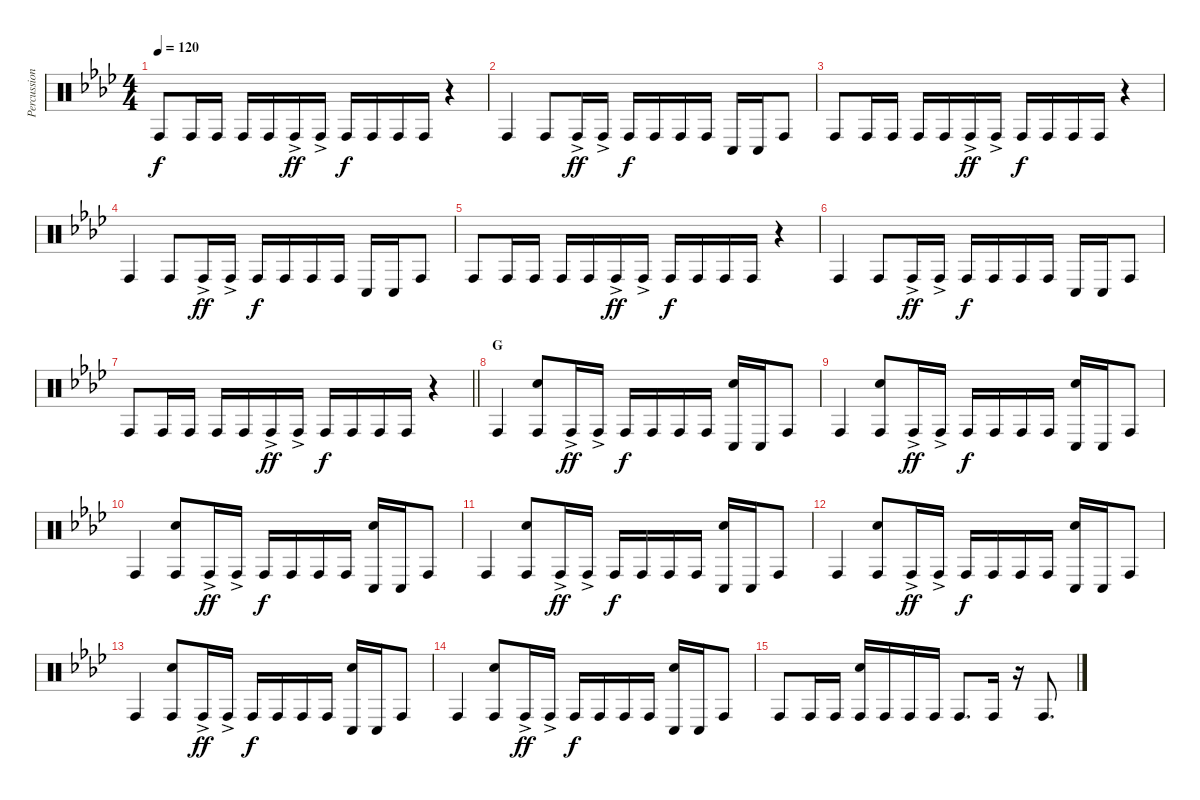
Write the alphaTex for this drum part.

\track ("Percussion" "Percussion") {instrument percussion}
\staff {score}
\articulation defaults
\ts (4 4)
\tempo 120
\clef neutral
\ks ab "Conga high (hit)".8{dy f} "Conga high (hit)".16 "Conga high (hit)".16 "Conga high (hit)".16 "Conga high (hit)".16 "Conga high (hit)"{ac}.16{dy ff} "Conga high (hit)"{ac}.16 "Conga high (hit)".16{dy f} "Conga high (hit)".16 "Conga high (hit)".16 "Conga high (hit)".16
r.4 |
"Conga high (hit)".4 "Conga high (hit)".8 "Conga high (hit)"{ac}.16{dy ff} "Conga high (hit)"{ac}.16 "Conga high (hit)".16{dy f} "Conga high (hit)".16 "Conga high (hit)".16 "Conga high (hit)".16 "Conga low (hit)".16 "Conga low (hit)".16 "Conga high (hit)".8 |
"Conga high (hit)".8 "Conga high (hit)".16 "Conga high (hit)".16 "Conga high (hit)".16 "Conga high (hit)".16 "Conga high (hit)"{ac}.16{dy ff} "Conga high (hit)"{ac}.16 "Conga high (hit)".16{dy f} "Conga high (hit)".16 "Conga high (hit)".16 "Conga high (hit)".16 r.4 |
"Conga high (hit)".4 "Conga high (hit)".8 "Conga high (hit)"{ac}.16{dy ff} "Conga high (hit)"{ac}.16 "Conga high (hit)".16{dy f} "Conga high (hit)".16 "Conga high (hit)".16 "Conga high (hit)".16 "Conga low (hit)".16 "Conga low (hit)".16 "Conga high (hit)".8 |
"Conga high (hit)".8 "Conga high (hit)".16 "Conga high (hit)".16 "Conga high (hit)".16 "Conga high (hit)".16 "Conga high (hit)"{ac}.16{dy ff} "Conga high (hit)"{ac}.16 "Conga high (hit)".16{dy f} "Conga high (hit)".16 "Conga high (hit)".16 "Conga high (hit)".16 r.4 |
"Conga high (hit)".4 "Conga high (hit)".8 "Conga high (hit)"{ac}.16{dy ff} "Conga high (hit)"{ac}.16 "Conga high (hit)".16{dy f} "Conga high (hit)".16 "Conga high (hit)".16 "Conga high (hit)".16 "Conga low (hit)".16 "Conga low (hit)".16 "Conga high (hit)".8 |
\barLineRight lightlight "Conga high (hit)".8 "Conga high (hit)".16 "Conga high (hit)".16 "Conga high (hit)".16 "Conga high (hit)".16 "Conga high (hit)"{ac}.16{dy ff} "Conga high (hit)"{ac}.16 "Conga high (hit)".16{dy f} "Conga high (hit)".16 "Conga high (hit)".16 "Conga high (hit)".16
r.4 |
\section ("" "G")
"Conga high (hit)".4 ("Conga high (hit)" "Hand Clap (hit)").8 "Conga high (hit)"{ac}.16{dy ff} "Conga high (hit)"{ac}.16 "Conga high (hit)".16{dy f} "Conga high (hit)".16 "Conga high (hit)".16 "Conga high (hit)".16 ("Conga low (hit)" "Hand Clap (hit)").16 "Conga low (hit)".16 "Conga high (hit)".8 |
"Conga high (hit)".4 ("Conga high (hit)" "Hand Clap (hit)").8 "Conga high (hit)"{ac}.16{dy ff} "Conga high (hit)"{ac}.16 "Conga high (hit)".16{dy f} "Conga high (hit)".16 "Conga high (hit)".16 "Conga high (hit)".16 ("Conga low (hit)" "Hand Clap (hit)").16 "Conga low (hit)".16 "Conga high (hit)".8 |
"Conga high (hit)".4 ("Conga high (hit)" "Hand Clap (hit)").8 "Conga high (hit)"{ac}.16{dy ff} "Conga high (hit)"{ac}.16 "Conga high (hit)".16{dy f} "Conga high (hit)".16 "Conga high (hit)".16 "Conga high (hit)".16 ("Conga low (hit)" "Hand Clap (hit)").16 "Conga low (hit)".16 "Conga high (hit)".8 |
"Conga high (hit)".4 ("Conga high (hit)" "Hand Clap (hit)").8 "Conga high (hit)"{ac}.16{dy ff} "Conga high (hit)"{ac}.16 "Conga high (hit)".16{dy f} "Conga high (hit)".16 "Conga high (hit)".16 "Conga high (hit)".16 ("Conga low (hit)" "Hand Clap (hit)").16 "Conga low (hit)".16 "Conga high (hit)".8 |
"Conga high (hit)".4 ("Conga high (hit)" "Hand Clap (hit)").8 "Conga high (hit)"{ac}.16{dy ff} "Conga high (hit)"{ac}.16 "Conga high (hit)".16{dy f} "Conga high (hit)".16 "Conga high (hit)".16 "Conga high (hit)".16 ("Conga low (hit)" "Hand Clap (hit)").16 "Conga low (hit)".16 "Conga high (hit)".8 |
"Conga high (hit)".4 ("Conga high (hit)" "Hand Clap (hit)").8 "Conga high (hit)"{ac}.16{dy ff} "Conga high (hit)"{ac}.16 "Conga high (hit)".16{dy f} "Conga high (hit)".16 "Conga high (hit)".16 "Conga high (hit)".16 ("Conga low (hit)" "Hand Clap (hit)").16 "Conga low (hit)".16 "Conga high (hit)".8 |
"Conga high (hit)".4 ("Conga high (hit)" "Hand Clap (hit)").8 "Conga high (hit)"{ac}.16{dy ff} "Conga high (hit)"{ac}.16 "Conga high (hit)".16{dy f} "Conga high (hit)".16 "Conga high (hit)".16 "Conga high (hit)".16 ("Conga low (hit)" "Hand Clap (hit)").16 "Conga low (hit)".16 "Conga high (hit)".8 |
"Conga high (hit)".8 "Conga high (hit)".16 "Conga high (hit)".16 ("Hand Clap (hit)" "Conga high (hit)").16 "Conga high (hit)".16 "Conga high (hit)".16 "Conga high (hit)".16 "Conga high (hit)".8{d} "Conga high (hit)".16 r.16 "Conga high (hit)".8{d}
